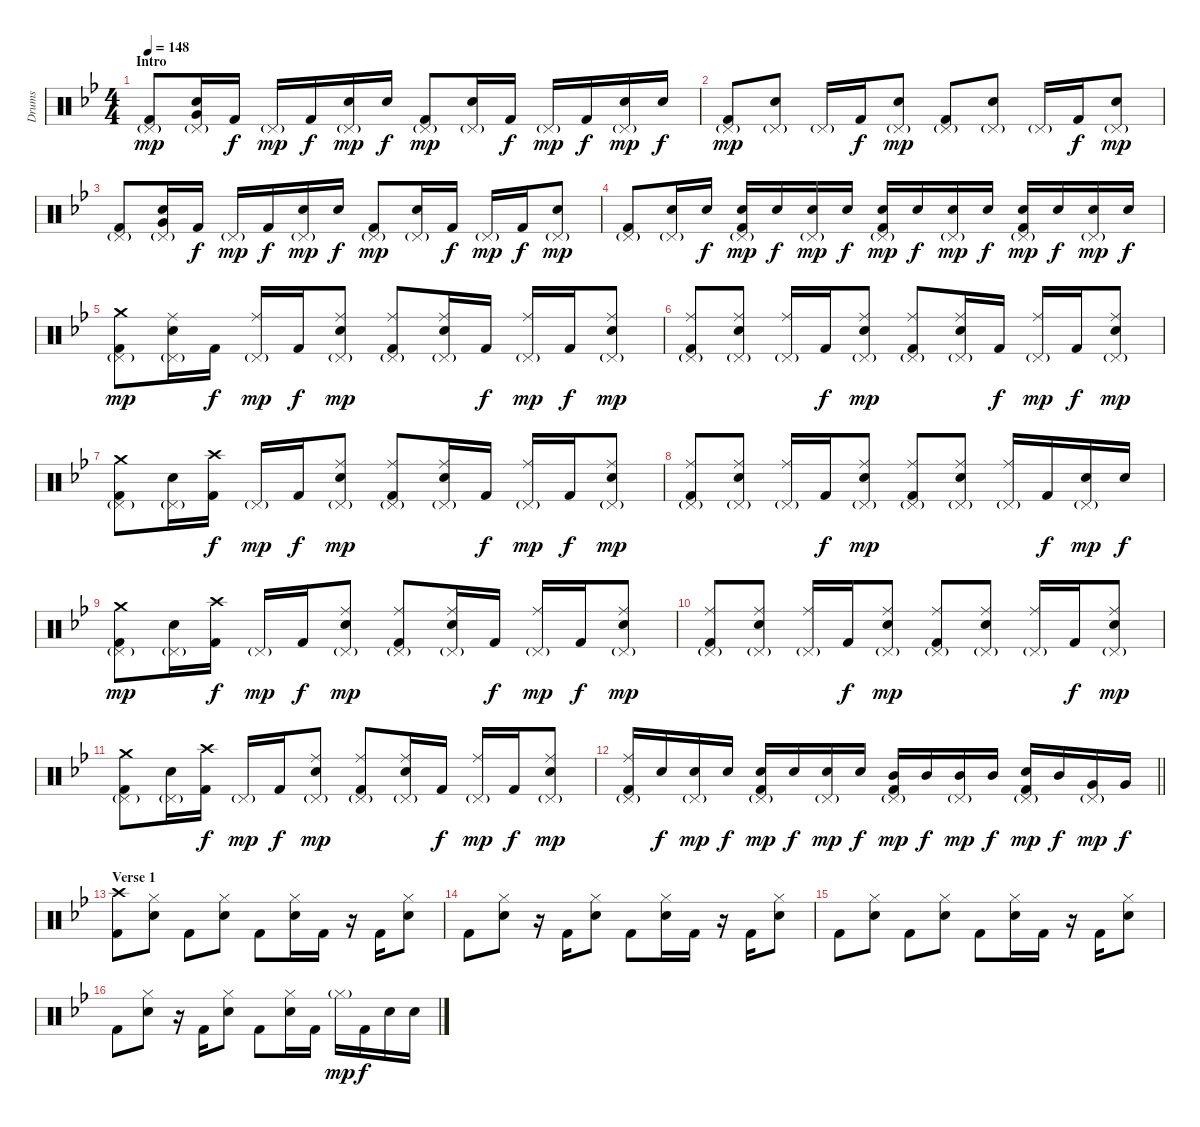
\track ("Drums" "Drums") {instrument percussion}
\staff {score}
\articulation defaults
\ts (4 4)
\section ("" "Intro")
\tempo 148
\clef neutral
\ks gminor
("Pedal Hi-Hat (hit)"{g} "Kick (hit) 2").8{dy mp} ("Pedal Hi-Hat (hit)"{g} "Electric Snare (hit)" "Very Low Tom (hit)").16 "Kick (hit) 2".16{dy f} "Pedal Hi-Hat (hit)"{g}.16{dy mp} "Kick (hit) 2".16{dy f} ("Pedal Hi-Hat (hit)"{g} "Electric Snare (hit)").16{dy mp} "Electric Snare (hit)".16{dy f} ("Pedal Hi-Hat (hit)"{g} "Kick (hit) 2").8{dy mp} ("Pedal Hi-Hat (hit)"{g} "Electric Snare (hit)").16 "Kick (hit) 2".16{dy f} "Pedal Hi-Hat (hit)"{g}.16{dy mp} "Kick (hit) 2".16{dy f} ("Pedal Hi-Hat (hit)"{g} "Electric Snare (hit)").16{dy mp} "Electric Snare (hit)".16{dy f} |
("Pedal Hi-Hat (hit)"{g} "Kick (hit) 2").8{dy mp} ("Pedal Hi-Hat (hit)"{g} "Electric Snare (hit)").8 "Pedal Hi-Hat (hit)"{g}.16 "Kick (hit) 2".16{dy f} ("Pedal Hi-Hat (hit)"{g} "Electric Snare (hit)").8{dy mp} ("Pedal Hi-Hat (hit)"{g} "Kick (hit) 2").8 ("Pedal Hi-Hat (hit)"{g} "Electric Snare (hit)").8 "Pedal Hi-Hat (hit)"{g}.16 "Kick (hit) 2".16{dy f} ("Pedal Hi-Hat (hit)"{g} "Electric Snare (hit)").8{dy mp} |
("Pedal Hi-Hat (hit)"{g} "Kick (hit) 2").8 ("Pedal Hi-Hat (hit)"{g} "Electric Snare (hit)" "Very Low Tom (hit)").16 "Kick (hit) 2".16{dy f} "Pedal Hi-Hat (hit)"{g}.16{dy mp} "Kick (hit) 2".16{dy f} ("Pedal Hi-Hat (hit)"{g} "Electric Snare (hit)").16{dy mp} "Electric Snare (hit)".16{dy f} ("Pedal Hi-Hat (hit)"{g} "Kick (hit) 2").8{dy mp} ("Pedal Hi-Hat (hit)"{g} "Electric Snare (hit)").16 "Kick (hit) 2".16{dy f} "Pedal Hi-Hat (hit)"{g}.16{dy mp} "Kick (hit) 2".16{dy f} ("Pedal Hi-Hat (hit)"{g} "Electric Snare (hit)").8{dy mp} |
("Pedal Hi-Hat (hit)"{g} "Kick (hit) 2").8 ("Pedal Hi-Hat (hit)"{g} "Electric Snare (hit)").16 "Electric Snare (hit)".16{dy f} ("Pedal Hi-Hat (hit)"{g} "Electric Snare (hit)" "Kick (hit) 2").16{dy mp} "Electric Snare (hit)".16{dy f} ("Pedal Hi-Hat (hit)"{g} "Electric Snare (hit)").16{dy mp} "Electric Snare (hit)".16{dy f} ("Pedal Hi-Hat (hit)"{g} "Electric Snare (hit)" "Kick (hit) 2").16{dy mp} "Electric Snare (hit)".16{dy f} ("Pedal Hi-Hat (hit)"{g} "Electric Snare (hit)").16{dy mp} "Electric Snare (hit)".16{dy f} ("Pedal Hi-Hat (hit)"{g} "Electric Snare (hit)" "Kick (hit) 2").16{dy mp} "Electric Snare (hit)".16{dy f} ("Pedal Hi-Hat (hit)"{g} "Electric Snare (hit)").16{dy mp} "Electric Snare (hit)".16{dy f} |
("Crash medium (hit)" "Pedal Hi-Hat (hit)"{g} "Kick (hit) 2").8{dy mp} ("Ride (middle)" "Pedal Hi-Hat (hit)"{g} "Electric Snare (hit)").16 "Kick (hit) 2".16{dy f} ("Ride (middle)" "Pedal Hi-Hat (hit)"{g}).16{dy mp} "Kick (hit) 2".16{dy f} ("Ride (middle)" "Pedal Hi-Hat (hit)"{g} "Electric Snare (hit)").8{dy mp} ("Ride (middle)" "Pedal Hi-Hat (hit)"{g} "Kick (hit) 2").8 ("Ride (middle)" "Pedal Hi-Hat (hit)"{g} "Electric Snare (hit)").16 "Kick (hit) 2".16{dy f} ("Ride (middle)" "Pedal Hi-Hat (hit)"{g}).16{dy mp} "Kick (hit) 2".16{dy f} ("Ride (middle)" "Pedal Hi-Hat (hit)"{g} "Electric Snare (hit)").8{dy mp} |
("Ride (middle)" "Pedal Hi-Hat (hit)"{g} "Kick (hit) 2").8 ("Ride (middle)" "Pedal Hi-Hat (hit)"{g} "Electric Snare (hit)").8 ("Ride (middle)" "Pedal Hi-Hat (hit)"{g}).16 "Kick (hit) 2".16{dy f} ("Ride (middle)" "Pedal Hi-Hat (hit)"{g} "Electric Snare (hit)").8{dy mp} ("Ride (middle)" "Pedal Hi-Hat (hit)"{g} "Kick (hit) 2").8 ("Ride (middle)" "Pedal Hi-Hat (hit)"{g} "Electric Snare (hit)").16 "Kick (hit) 2".16{dy f} ("Ride (middle)" "Pedal Hi-Hat (hit)"{g}).16{dy mp} "Kick (hit) 2".16{dy f} ("Ride (middle)" "Pedal Hi-Hat (hit)"{g} "Electric Snare (hit)").8{dy mp} |
("Crash medium (hit)" "Pedal Hi-Hat (hit)"{g} "Kick (hit) 2").8 ("Pedal Hi-Hat (hit)"{g} "Electric Snare (hit)").16 ("Crash high (hit)" "Kick (hit) 2").16{dy f} "Pedal Hi-Hat (hit)"{g}.16{dy mp} "Kick (hit) 2".16{dy f} ("Ride (middle)" "Pedal Hi-Hat (hit)"{g} "Electric Snare (hit)").8{dy mp} ("Ride (middle)" "Pedal Hi-Hat (hit)"{g} "Kick (hit) 2").8 ("Ride (middle)" "Pedal Hi-Hat (hit)"{g} "Electric Snare (hit)").16 "Kick (hit) 2".16{dy f} ("Ride (middle)" "Pedal Hi-Hat (hit)"{g}).16{dy mp} "Kick (hit) 2".16{dy f} ("Ride (middle)" "Pedal Hi-Hat (hit)"{g} "Electric Snare (hit)").8{dy mp} |
("Ride (middle)" "Pedal Hi-Hat (hit)"{g} "Kick (hit) 2").8 ("Ride (middle)" "Pedal Hi-Hat (hit)"{g} "Electric Snare (hit)").8 ("Ride (middle)" "Pedal Hi-Hat (hit)"{g}).16 "Kick (hit) 2".16{dy f} ("Ride (middle)" "Pedal Hi-Hat (hit)"{g} "Electric Snare (hit)").8{dy mp} ("Ride (middle)" "Pedal Hi-Hat (hit)"{g} "Kick (hit) 2").8 ("Ride (middle)" "Pedal Hi-Hat (hit)"{g} "Electric Snare (hit)").8 ("Ride (middle)" "Pedal Hi-Hat (hit)"{g}).16 "Kick (hit) 2".16{dy f} ("Pedal Hi-Hat (hit)"{g} "Electric Snare (hit)").16{dy mp} "Electric Snare (hit)".16{dy f} |
("Crash medium (hit)" "Pedal Hi-Hat (hit)"{g} "Kick (hit) 2").8{dy mp} ("Pedal Hi-Hat (hit)"{g} "Electric Snare (hit)").16 ("Crash high (hit)" "Kick (hit) 2").16{dy f} "Pedal Hi-Hat (hit)"{g}.16{dy mp} "Kick (hit) 2".16{dy f} ("Ride (middle)" "Pedal Hi-Hat (hit)"{g} "Electric Snare (hit)").8{dy mp} ("Ride (middle)" "Pedal Hi-Hat (hit)"{g} "Kick (hit) 2").8 ("Ride (middle)" "Pedal Hi-Hat (hit)"{g} "Electric Snare (hit)").16 "Kick (hit) 2".16{dy f} ("Ride (middle)" "Pedal Hi-Hat (hit)"{g}).16{dy mp} "Kick (hit) 2".16{dy f} ("Ride (middle)" "Pedal Hi-Hat (hit)"{g} "Electric Snare (hit)").8{dy mp} |
("Ride (middle)" "Pedal Hi-Hat (hit)"{g} "Kick (hit) 2").8 ("Ride (middle)" "Pedal Hi-Hat (hit)"{g} "Electric Snare (hit)").8 ("Ride (middle)" "Pedal Hi-Hat (hit)"{g}).16 "Kick (hit) 2".16{dy f} ("Ride (middle)" "Pedal Hi-Hat (hit)"{g} "Electric Snare (hit)").8{dy mp} ("Ride (middle)" "Pedal Hi-Hat (hit)"{g} "Kick (hit) 2").8 ("Ride (middle)" "Pedal Hi-Hat (hit)"{g} "Electric Snare (hit)").8 ("Ride (middle)" "Pedal Hi-Hat (hit)"{g}).16 "Kick (hit) 2".16{dy f} ("Ride (middle)" "Pedal Hi-Hat (hit)"{g} "Electric Snare (hit)").8{dy mp} |
("Crash medium (hit)" "Pedal Hi-Hat (hit)"{g} "Kick (hit) 2").8 ("Pedal Hi-Hat (hit)"{g} "Electric Snare (hit)").16 ("Crash high (hit)" "Kick (hit) 2").16{dy f} "Pedal Hi-Hat (hit)"{g}.16{dy mp} "Kick (hit) 2".16{dy f} ("Ride (middle)" "Pedal Hi-Hat (hit)"{g} "Electric Snare (hit)").8{dy mp} ("Ride (middle)" "Pedal Hi-Hat (hit)"{g} "Kick (hit) 2").8 ("Ride (middle)" "Pedal Hi-Hat (hit)"{g} "Electric Snare (hit)").16 "Kick (hit) 2".16{dy f} ("Ride (middle)" "Pedal Hi-Hat (hit)"{g}).16{dy mp} "Kick (hit) 2".16{dy f} ("Ride (middle)" "Pedal Hi-Hat (hit)"{g} "Electric Snare (hit)").8{dy mp} |
\barLineRight lightlight
("Ride (middle)" "Pedal Hi-Hat (hit)"{g} "Kick (hit) 2").16 "Electric Snare (hit)".16{dy f} ("Pedal Hi-Hat (hit)"{g} "Electric Snare (hit)").16{dy mp} "Electric Snare (hit)".16{dy f} ("Pedal Hi-Hat (hit)"{g} "Electric Snare (hit)" "Kick (hit) 2").16{dy mp} "Electric Snare (hit)".16{dy f} ("Pedal Hi-Hat (hit)"{g} "Electric Snare (hit)").16{dy mp} "Electric Snare (hit)".16{dy f} ("Pedal Hi-Hat (hit)"{g} "Mid Tom (hit)" "Kick (hit) 2").16{dy mp} "Mid Tom (hit)".16{dy f} ("Pedal Hi-Hat (hit)"{g} "Mid Tom (hit)").16{dy mp} "Mid Tom (hit)".16{dy f} ("Pedal Hi-Hat (hit)"{g} "Electric Snare (hit)" "Kick (hit) 2").16{dy mp} "Mid Tom (hit)".16{dy f} ("Pedal Hi-Hat (hit)"{g} "Very Low Tom (hit)").16{dy mp} "Very Low Tom (hit)".16{dy f} |
\section ("" "Verse 1")
("Crash high (hit)" "Kick (hit) 2").8 ("Hi-Hat (closed)" "Electric Snare (hit)").8 "Kick (hit) 2".8 ("Hi-Hat (closed)" "Electric Snare (hit)").8 "Kick (hit) 2".8 ("Hi-Hat (closed)" "Electric Snare (hit)").16 "Kick (hit) 2".16 r.16 "Kick (hit) 2".16 ("Hi-Hat (closed)" "Electric Snare (hit)").8 |
"Kick (hit) 2".8 ("Hi-Hat (closed)" "Electric Snare (hit)").8 r.16 "Kick (hit) 2".16 ("Hi-Hat (closed)" "Electric Snare (hit)").8 "Kick (hit) 2".8 ("Hi-Hat (closed)" "Electric Snare (hit)").16 "Kick (hit) 2".16 r.16 "Kick (hit) 2".16 ("Hi-Hat (closed)" "Electric Snare (hit)").8 |
"Kick (hit) 2".8 ("Hi-Hat (closed)" "Electric Snare (hit)").8 "Kick (hit) 2".8 ("Hi-Hat (closed)" "Electric Snare (hit)").8 "Kick (hit) 2".8 ("Hi-Hat (closed)" "Electric Snare (hit)").16 "Kick (hit) 2".16 r.16 "Kick (hit) 2".16 ("Hi-Hat (closed)" "Electric Snare (hit)").8 |
"Kick (hit) 2".8 ("Hi-Hat (closed)" "Electric Snare (hit)").8 r.16 "Kick (hit) 2".16 ("Hi-Hat (closed)" "Electric Snare (hit)").8 "Kick (hit) 2".8 ("Hi-Hat (closed)" "Electric Snare (hit)").16 "Kick (hit) 2".16 "Hi-Hat (closed)"{g}.16{dy mp} "Kick (hit) 2".16{dy f} "Electric Snare (hit)".16 "Electric Snare (hit)".16
